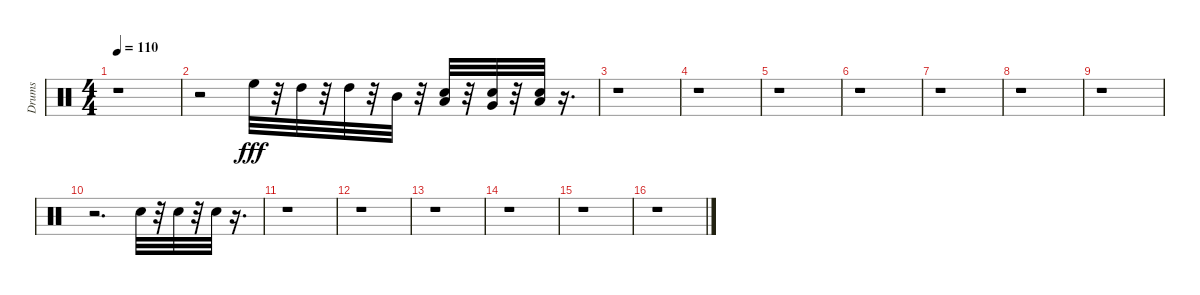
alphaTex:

\track ("Drums" "Drums") {instrument percussion}
\staff {score}
\articulation defaults
\ts (4 4)
\tempo 110
\clef neutral
\ks c
r.1{dy fff} |
r.2 "High Floor Tom (hit)".32 r.32 "High Tom (hit)".32 r.32 "High Tom (hit)".32 r.32 "Mid Tom (hit)".32 r.32 ("Low Tom (hit)" "Electric Snare (hit)").32 r.32 ("Very Low Tom (hit)" "Electric Snare (hit)").32 r.32 ("Low Floor Tom (hit)" "Electric Snare (hit)").32 r.16{d} |
r.1 |
r.1 |
r.1 |
r.1 |
r.1 |
r.1 |
r.1 |
r.2{d} "Electric Snare (hit)".32 r.32 "Electric Snare (hit)".32 r.32 "Electric Snare (hit)".32 r.16{d} |
r.1 |
r.1 |
r.1 |
r.1 |
r.1 |
r.1
